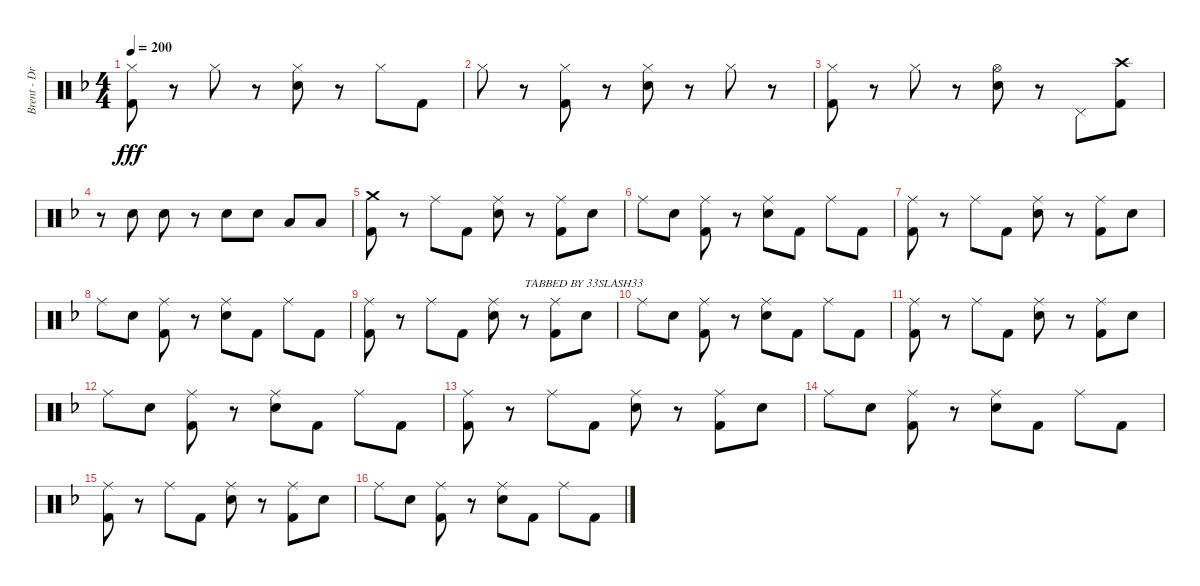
\track ("Brent - Drums" "Brent - Dr") {instrument percussion}
\staff {score}
\articulation defaults
\ts (4 4)
\tempo 200
\clef neutral
\ks dminor
("Hi-Hat (closed)" "Kick (hit) 2").8{dy fff} r.8 "Hi-Hat (closed)".8 r.8 ("Hi-Hat (closed)" "Snare (hit) 2").8 r.8 "Hi-Hat (closed)".8 "Kick (hit) 2".8 |
"Hi-Hat (closed)".8 r.8 ("Hi-Hat (closed)" "Kick (hit) 2").8 r.8 ("Hi-Hat (closed)" "Snare (hit) 2").8 r.8 "Hi-Hat (closed)".8 r.8 |
("Hi-Hat (closed)" "Kick (hit) 2").8 r.8 "Hi-Hat (closed)".8 r.8 ("Hi-Hat (open)" "Snare (hit) 2").8 r.8 "Pedal Hi-Hat (hit)".8 ("Crash high (hit)" "Kick (hit) 2").8 |
r.8 "Snare (hit) 2".8 "Snare (hit) 2".8 r.8 "Snare (hit) 2".8 "Snare (hit) 2".8 "Low Tom (hit)".8 "Low Tom (hit)".8 |
("Crash medium (hit)" "Kick (hit) 2").8 r.8 "Ride (middle)".8 "Kick (hit) 2".8 ("Ride (middle)" "Snare (hit) 2").8 r.8 ("Ride (middle)" "Kick (hit) 2").8 "Snare (hit) 2".8 |
"Ride (middle)".8 "Snare (hit) 2".8 ("Ride (middle)" "Kick (hit) 2").8 r.8 ("Ride (middle)" "Snare (hit) 2").8 "Kick (hit) 2".8 "Ride (middle)".8 "Kick (hit) 2".8 |
("Ride (middle)" "Kick (hit) 2").8 r.8 "Ride (middle)".8 "Kick (hit) 2".8 ("Ride (middle)" "Snare (hit) 2").8 r.8 ("Ride (middle)" "Kick (hit) 2").8 "Snare (hit) 2".8 |
"Ride (middle)".8 "Snare (hit) 2".8 ("Ride (middle)" "Kick (hit) 2").8 r.8 ("Ride (middle)" "Snare (hit) 2").8 "Kick (hit) 2".8 "Ride (middle)".8 "Kick (hit) 2".8 |
("Ride (middle)" "Kick (hit) 2").8 r.8 "Ride (middle)".8 "Kick (hit) 2".8 ("Ride (middle)" "Snare (hit) 2").8 r.8{txt "TABBED BY 33SLASH33"} ("Ride (middle)" "Kick (hit) 2").8 "Snare (hit) 2".8 |
"Ride (middle)".8 "Snare (hit) 2".8 ("Ride (middle)" "Kick (hit) 2").8 r.8 ("Ride (middle)" "Snare (hit) 2").8 "Kick (hit) 2".8 "Ride (middle)".8 "Kick (hit) 2".8 |
("Ride (middle)" "Kick (hit) 2").8 r.8 "Ride (middle)".8 "Kick (hit) 2".8 ("Ride (middle)" "Snare (hit) 2").8 r.8 ("Ride (middle)" "Kick (hit) 2").8 "Snare (hit) 2".8 |
"Ride (middle)".8 "Snare (hit) 2".8 ("Ride (middle)" "Kick (hit) 2").8 r.8 ("Ride (middle)" "Snare (hit) 2").8 "Kick (hit) 2".8 "Ride (middle)".8 "Kick (hit) 2".8 |
("Ride (middle)" "Kick (hit) 2").8 r.8 "Ride (middle)".8 "Kick (hit) 2".8 ("Ride (middle)" "Snare (hit) 2").8 r.8 ("Ride (middle)" "Kick (hit) 2").8 "Snare (hit) 2".8 |
"Ride (middle)".8 "Snare (hit) 2".8 ("Ride (middle)" "Kick (hit) 2").8 r.8 ("Ride (middle)" "Snare (hit) 2").8 "Kick (hit) 2".8 "Ride (middle)".8 "Kick (hit) 2".8 |
("Ride (middle)" "Kick (hit) 2").8 r.8 "Ride (middle)".8 "Kick (hit) 2".8 ("Ride (middle)" "Snare (hit) 2").8 r.8 ("Ride (middle)" "Kick (hit) 2").8 "Snare (hit) 2".8 |
"Ride (middle)".8 "Snare (hit) 2".8 ("Ride (middle)" "Kick (hit) 2").8 r.8 ("Ride (middle)" "Snare (hit) 2").8 "Kick (hit) 2".8 "Ride (middle)".8 "Kick (hit) 2".8
